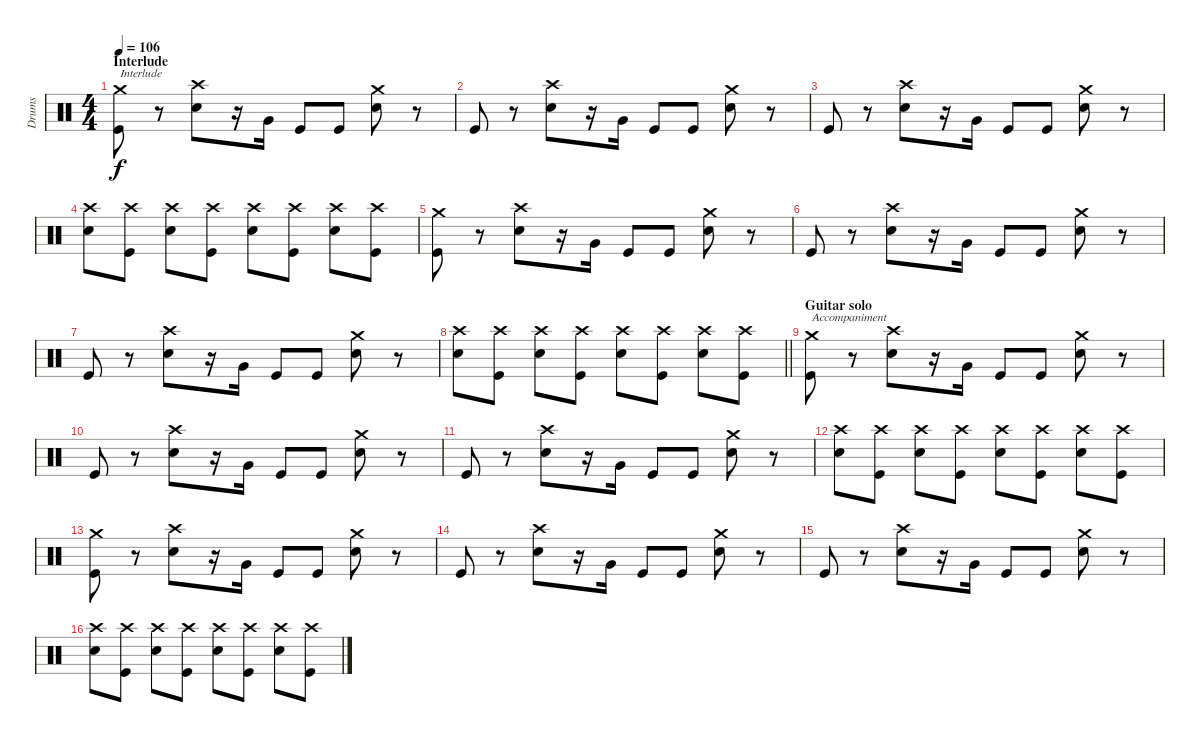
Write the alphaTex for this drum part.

\track ("Drums" "Drums") {instrument percussion}
\staff {score}
\articulation defaults
\ts (4 4)
\section ("" "Interlude")
\tempo 106
\clef neutral
\ks c
("Kick (hit)" "Crash medium (hit)").8{txt "Interlude" dy f} r.8 ("Electric Snare (hit)" "Crash high (hit)").8 r.16 "Very Low Tom (hit)".16 "Kick (hit)".8 "Kick (hit)".8 ("Electric Snare (hit)" "Crash medium (hit)").8 r.8 |
"Kick (hit)".8 r.8 ("Electric Snare (hit)" "Crash high (hit)").8 r.16 "Very Low Tom (hit)".16 "Kick (hit)".8 "Kick (hit)".8 ("Electric Snare (hit)" "Crash medium (hit)").8 r.8 |
"Kick (hit)".8 r.8 ("Electric Snare (hit)" "Crash high (hit)").8 r.16 "Very Low Tom (hit)".16 "Kick (hit)".8 "Kick (hit)".8 ("Electric Snare (hit)" "Crash medium (hit)").8 r.8 |
("Electric Snare (hit)" "Crash high (hit)").8 ("Kick (hit)" "Crash high (hit)").8 ("Electric Snare (hit)" "Crash high (hit)").8 ("Kick (hit)" "Crash high (hit)").8 ("Electric Snare (hit)" "Crash high (hit)").8 ("Kick (hit)" "Crash high (hit)").8 ("Electric Snare (hit)" "Crash high (hit)").8 ("Kick (hit)" "Crash high (hit)").8 |
("Kick (hit)" "Crash medium (hit)").8 r.8 ("Electric Snare (hit)" "Crash high (hit)").8 r.16 "Very Low Tom (hit)".16 "Kick (hit)".8 "Kick (hit)".8 ("Electric Snare (hit)" "Crash medium (hit)").8 r.8 |
"Kick (hit)".8 r.8 ("Electric Snare (hit)" "Crash high (hit)").8 r.16 "Very Low Tom (hit)".16 "Kick (hit)".8 "Kick (hit)".8 ("Electric Snare (hit)" "Crash medium (hit)").8 r.8 |
"Kick (hit)".8 r.8 ("Electric Snare (hit)" "Crash high (hit)").8 r.16 "Very Low Tom (hit)".16 "Kick (hit)".8 "Kick (hit)".8 ("Electric Snare (hit)" "Crash medium (hit)").8 r.8 |
\barLineRight lightlight
("Electric Snare (hit)" "Crash high (hit)").8 ("Kick (hit)" "Crash high (hit)").8 ("Electric Snare (hit)" "Crash high (hit)").8 ("Kick (hit)" "Crash high (hit)").8 ("Electric Snare (hit)" "Crash high (hit)").8 ("Kick (hit)" "Crash high (hit)").8 ("Electric Snare (hit)" "Crash high (hit)").8 ("Kick (hit)" "Crash high (hit)").8 |
\section ("" "Guitar solo")
("Kick (hit)" "Crash medium (hit)").8{txt "Accompaniment"} r.8 ("Electric Snare (hit)" "Crash high (hit)").8 r.16 "Very Low Tom (hit)".16 "Kick (hit)".8 "Kick (hit)".8 ("Electric Snare (hit)" "Crash medium (hit)").8 r.8 |
"Kick (hit)".8 r.8 ("Electric Snare (hit)" "Crash high (hit)").8 r.16 "Very Low Tom (hit)".16 "Kick (hit)".8 "Kick (hit)".8 ("Electric Snare (hit)" "Crash medium (hit)").8 r.8 |
"Kick (hit)".8 r.8 ("Electric Snare (hit)" "Crash high (hit)").8 r.16 "Very Low Tom (hit)".16 "Kick (hit)".8 "Kick (hit)".8 ("Electric Snare (hit)" "Crash medium (hit)").8 r.8 |
("Electric Snare (hit)" "Crash high (hit)").8 ("Kick (hit)" "Crash high (hit)").8 ("Electric Snare (hit)" "Crash high (hit)").8 ("Kick (hit)" "Crash high (hit)").8 ("Electric Snare (hit)" "Crash high (hit)").8 ("Kick (hit)" "Crash high (hit)").8 ("Electric Snare (hit)" "Crash high (hit)").8 ("Kick (hit)" "Crash high (hit)").8 |
("Kick (hit)" "Crash medium (hit)").8 r.8 ("Electric Snare (hit)" "Crash high (hit)").8 r.16 "Very Low Tom (hit)".16 "Kick (hit)".8 "Kick (hit)".8 ("Electric Snare (hit)" "Crash medium (hit)").8 r.8 |
"Kick (hit)".8 r.8 ("Electric Snare (hit)" "Crash high (hit)").8 r.16 "Very Low Tom (hit)".16 "Kick (hit)".8 "Kick (hit)".8 ("Electric Snare (hit)" "Crash medium (hit)").8 r.8 |
"Kick (hit)".8 r.8 ("Electric Snare (hit)" "Crash high (hit)").8 r.16 "Very Low Tom (hit)".16 "Kick (hit)".8 "Kick (hit)".8 ("Electric Snare (hit)" "Crash medium (hit)").8 r.8 |
("Electric Snare (hit)" "Crash high (hit)").8 ("Kick (hit)" "Crash high (hit)").8 ("Electric Snare (hit)" "Crash high (hit)").8 ("Kick (hit)" "Crash high (hit)").8 ("Electric Snare (hit)" "Crash high (hit)").8 ("Kick (hit)" "Crash high (hit)").8 ("Electric Snare (hit)" "Crash high (hit)").8 ("Kick (hit)" "Crash high (hit)").8
